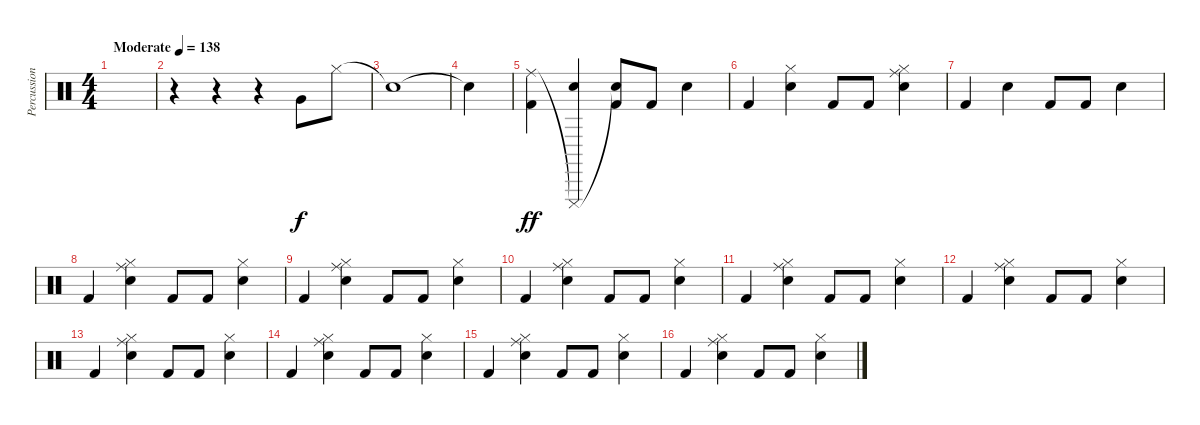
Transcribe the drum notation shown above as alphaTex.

\track ("Percussion" "Percussion") {instrument percussion}
\staff {score}
\articulation defaults
\ts (4 4)
\tempo (138 "Moderate")
\clef neutral
\ks c
|
r.4 r.4 r.4 "Very Low Tom (hit)".8 "Hi-Hat (closed)".8 |
"Snare (hit)"{t}.1{dy f} |
"Snare (hit)"{t}.4 |
("Kick (hit) 2" "Ride (middle)").4{dy ff} ("Snare (hit) 2" "Cuica (mute)"{t}).4 ("Kick (hit) 2" "Snare (hit)"{t}).8 "Kick (hit) 2".8 "Snare (hit) 2".4 |
"Kick (hit) 2".4 ("Snare (hit) 2" "Hi-Hat (closed)").4 "Kick (hit) 2".8 "Kick (hit) 2".8 ("Ride (middle)" "Snare (hit) 2" "Hi-Hat (closed)").4 |
"Kick (hit) 2".4 "Snare (hit) 2".4 "Kick (hit) 2".8 "Kick (hit) 2".8 "Snare (hit) 2".4 |
"Kick (hit) 2".4 ("Ride (middle)" "Snare (hit) 2" "Hi-Hat (closed)").4 "Kick (hit) 2".8 "Kick (hit) 2".8 ("Snare (hit) 2" "Hi-Hat (closed)").4 |
"Kick (hit) 2".4 ("Ride (middle)" "Snare (hit) 2" "Hi-Hat (closed)").4 "Kick (hit) 2".8 "Kick (hit) 2".8 ("Snare (hit) 2" "Hi-Hat (closed)").4 |
"Kick (hit) 2".4 ("Ride (middle)" "Snare (hit) 2" "Hi-Hat (closed)").4 "Kick (hit) 2".8 "Kick (hit) 2".8 ("Snare (hit) 2" "Hi-Hat (closed)").4 |
"Kick (hit) 2".4 ("Ride (middle)" "Snare (hit) 2" "Hi-Hat (closed)").4 "Kick (hit) 2".8 "Kick (hit) 2".8 ("Snare (hit) 2" "Hi-Hat (closed)").4 |
"Kick (hit) 2".4 ("Ride (middle)" "Snare (hit) 2" "Hi-Hat (closed)").4 "Kick (hit) 2".8 "Kick (hit) 2".8 ("Snare (hit) 2" "Hi-Hat (closed)").4 |
"Kick (hit) 2".4 ("Ride (middle)" "Snare (hit) 2" "Hi-Hat (closed)").4 "Kick (hit) 2".8 "Kick (hit) 2".8 ("Snare (hit) 2" "Hi-Hat (closed)").4 |
"Kick (hit) 2".4 ("Ride (middle)" "Snare (hit) 2" "Hi-Hat (closed)").4 "Kick (hit) 2".8 "Kick (hit) 2".8 ("Snare (hit) 2" "Hi-Hat (closed)").4 |
"Kick (hit) 2".4 ("Ride (middle)" "Snare (hit) 2" "Hi-Hat (closed)").4 "Kick (hit) 2".8 "Kick (hit) 2".8 ("Snare (hit) 2" "Hi-Hat (closed)").4 |
"Kick (hit) 2".4 ("Ride (middle)" "Snare (hit) 2" "Hi-Hat (closed)").4 "Kick (hit) 2".8 "Kick (hit) 2".8 ("Snare (hit) 2" "Hi-Hat (closed)").4
